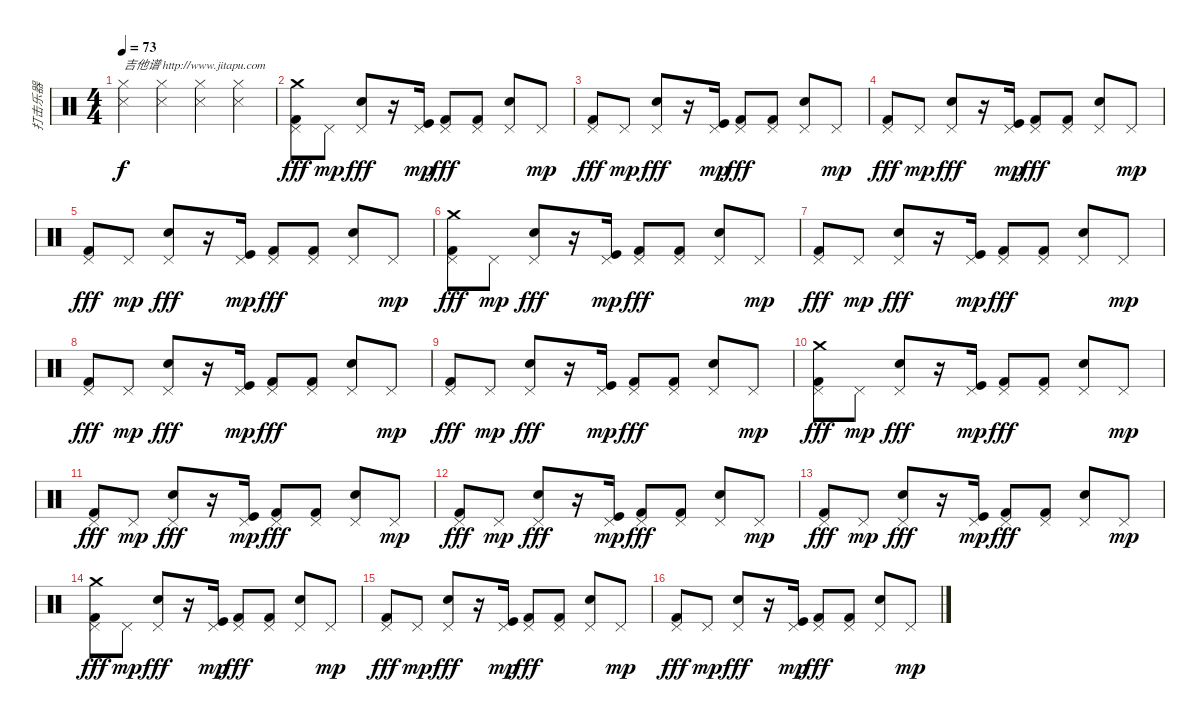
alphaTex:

\track ("打击乐器" "打击乐器") {instrument percussion}
\staff {score}
\articulation defaults
\ts (4 4)
\tempo 73
\clef neutral
\ks c
("Metronome (hit)" "Hi-Hat (closed)").4{txt "吉他谱 http://www.jitapu.com" dy f} ("Metronome (hit)" "Hi-Hat (closed)").4 ("Metronome (hit)" "Hi-Hat (closed)").4 ("Metronome (hit)" "Hi-Hat (closed)").4 |
("Pedal Hi-Hat (hit)" "Kick (hit) 2" "Crash medium (hit)").8{dy fff} "Pedal Hi-Hat (hit)".8{dy mp} ("Pedal Hi-Hat (hit)" "Electric Snare (hit)").8{dy fff} r.16 ("Pedal Hi-Hat (hit)" "Kick (hit)").16{dy mp} ("Pedal Hi-Hat (hit)" "Kick (hit) 2").8{dy fff} ("Pedal Hi-Hat (hit)" "Kick (hit) 2").8 ("Pedal Hi-Hat (hit)" "Electric Snare (hit)").8 "Pedal Hi-Hat (hit)".8{dy mp} |
("Pedal Hi-Hat (hit)" "Kick (hit) 2").8{dy fff} "Pedal Hi-Hat (hit)".8{dy mp} ("Pedal Hi-Hat (hit)" "Electric Snare (hit)").8{dy fff} r.16 ("Pedal Hi-Hat (hit)" "Kick (hit)").16{dy mp} ("Pedal Hi-Hat (hit)" "Kick (hit) 2").8{dy fff} ("Pedal Hi-Hat (hit)" "Kick (hit) 2").8 ("Pedal Hi-Hat (hit)" "Electric Snare (hit)").8 "Pedal Hi-Hat (hit)".8{dy mp} |
("Pedal Hi-Hat (hit)" "Kick (hit) 2").8{dy fff} "Pedal Hi-Hat (hit)".8{dy mp} ("Pedal Hi-Hat (hit)" "Electric Snare (hit)").8{dy fff} r.16 ("Pedal Hi-Hat (hit)" "Kick (hit)").16{dy mp} ("Pedal Hi-Hat (hit)" "Kick (hit) 2").8{dy fff} ("Pedal Hi-Hat (hit)" "Kick (hit) 2").8 ("Pedal Hi-Hat (hit)" "Electric Snare (hit)").8 "Pedal Hi-Hat (hit)".8{dy mp} |
("Pedal Hi-Hat (hit)" "Kick (hit) 2").8{dy fff} "Pedal Hi-Hat (hit)".8{dy mp} ("Pedal Hi-Hat (hit)" "Electric Snare (hit)").8{dy fff} r.16 ("Pedal Hi-Hat (hit)" "Kick (hit)").16{dy mp} ("Pedal Hi-Hat (hit)" "Kick (hit) 2").8{dy fff} ("Pedal Hi-Hat (hit)" "Kick (hit) 2").8 ("Pedal Hi-Hat (hit)" "Electric Snare (hit)").8 "Pedal Hi-Hat (hit)".8{dy mp} |
("Pedal Hi-Hat (hit)" "Kick (hit) 2" "Crash medium (hit)").8{dy fff} "Pedal Hi-Hat (hit)".8{dy mp} ("Pedal Hi-Hat (hit)" "Electric Snare (hit)").8{dy fff} r.16 ("Pedal Hi-Hat (hit)" "Kick (hit)").16{dy mp} ("Pedal Hi-Hat (hit)" "Kick (hit) 2").8{dy fff} ("Pedal Hi-Hat (hit)" "Kick (hit) 2").8 ("Pedal Hi-Hat (hit)" "Electric Snare (hit)").8 "Pedal Hi-Hat (hit)".8{dy mp} |
("Pedal Hi-Hat (hit)" "Kick (hit) 2").8{dy fff} "Pedal Hi-Hat (hit)".8{dy mp} ("Pedal Hi-Hat (hit)" "Electric Snare (hit)").8{dy fff} r.16 ("Pedal Hi-Hat (hit)" "Kick (hit)").16{dy mp} ("Pedal Hi-Hat (hit)" "Kick (hit) 2").8{dy fff} ("Pedal Hi-Hat (hit)" "Kick (hit) 2").8 ("Pedal Hi-Hat (hit)" "Electric Snare (hit)").8 "Pedal Hi-Hat (hit)".8{dy mp} |
("Pedal Hi-Hat (hit)" "Kick (hit) 2").8{dy fff} "Pedal Hi-Hat (hit)".8{dy mp} ("Pedal Hi-Hat (hit)" "Electric Snare (hit)").8{dy fff} r.16 ("Pedal Hi-Hat (hit)" "Kick (hit)").16{dy mp} ("Pedal Hi-Hat (hit)" "Kick (hit) 2").8{dy fff} ("Pedal Hi-Hat (hit)" "Kick (hit) 2").8 ("Pedal Hi-Hat (hit)" "Electric Snare (hit)").8 "Pedal Hi-Hat (hit)".8{dy mp} |
("Pedal Hi-Hat (hit)" "Kick (hit) 2").8{dy fff} "Pedal Hi-Hat (hit)".8{dy mp} ("Pedal Hi-Hat (hit)" "Electric Snare (hit)").8{dy fff} r.16 ("Pedal Hi-Hat (hit)" "Kick (hit)").16{dy mp} ("Pedal Hi-Hat (hit)" "Kick (hit) 2").8{dy fff} ("Pedal Hi-Hat (hit)" "Kick (hit) 2").8 ("Pedal Hi-Hat (hit)" "Electric Snare (hit)").8 "Pedal Hi-Hat (hit)".8{dy mp} |
("Pedal Hi-Hat (hit)" "Kick (hit) 2" "Crash medium (hit)").8{dy fff} "Pedal Hi-Hat (hit)".8{dy mp} ("Pedal Hi-Hat (hit)" "Electric Snare (hit)").8{dy fff} r.16 ("Pedal Hi-Hat (hit)" "Kick (hit)").16{dy mp} ("Pedal Hi-Hat (hit)" "Kick (hit) 2").8{dy fff} ("Pedal Hi-Hat (hit)" "Kick (hit) 2").8 ("Pedal Hi-Hat (hit)" "Electric Snare (hit)").8 "Pedal Hi-Hat (hit)".8{dy mp} |
("Pedal Hi-Hat (hit)" "Kick (hit) 2").8{dy fff} "Pedal Hi-Hat (hit)".8{dy mp} ("Pedal Hi-Hat (hit)" "Electric Snare (hit)").8{dy fff} r.16 ("Pedal Hi-Hat (hit)" "Kick (hit)").16{dy mp} ("Pedal Hi-Hat (hit)" "Kick (hit) 2").8{dy fff} ("Pedal Hi-Hat (hit)" "Kick (hit) 2").8 ("Pedal Hi-Hat (hit)" "Electric Snare (hit)").8 "Pedal Hi-Hat (hit)".8{dy mp} |
("Pedal Hi-Hat (hit)" "Kick (hit) 2").8{dy fff} "Pedal Hi-Hat (hit)".8{dy mp} ("Pedal Hi-Hat (hit)" "Electric Snare (hit)").8{dy fff} r.16 ("Pedal Hi-Hat (hit)" "Kick (hit)").16{dy mp} ("Pedal Hi-Hat (hit)" "Kick (hit) 2").8{dy fff} ("Pedal Hi-Hat (hit)" "Kick (hit) 2").8 ("Pedal Hi-Hat (hit)" "Electric Snare (hit)").8 "Pedal Hi-Hat (hit)".8{dy mp} |
("Pedal Hi-Hat (hit)" "Kick (hit) 2").8{dy fff} "Pedal Hi-Hat (hit)".8{dy mp} ("Pedal Hi-Hat (hit)" "Electric Snare (hit)").8{dy fff} r.16 ("Pedal Hi-Hat (hit)" "Kick (hit)").16{dy mp} ("Pedal Hi-Hat (hit)" "Kick (hit) 2").8{dy fff} ("Pedal Hi-Hat (hit)" "Kick (hit) 2").8 ("Pedal Hi-Hat (hit)" "Electric Snare (hit)").8 "Pedal Hi-Hat (hit)".8{dy mp} |
("Pedal Hi-Hat (hit)" "Kick (hit) 2" "Crash medium (hit)").8{dy fff} "Pedal Hi-Hat (hit)".8{dy mp} ("Pedal Hi-Hat (hit)" "Electric Snare (hit)").8{dy fff} r.16 ("Pedal Hi-Hat (hit)" "Kick (hit)").16{dy mp} ("Pedal Hi-Hat (hit)" "Kick (hit) 2").8{dy fff} ("Pedal Hi-Hat (hit)" "Kick (hit) 2").8 ("Pedal Hi-Hat (hit)" "Electric Snare (hit)").8 "Pedal Hi-Hat (hit)".8{dy mp} |
("Pedal Hi-Hat (hit)" "Kick (hit) 2").8{dy fff} "Pedal Hi-Hat (hit)".8{dy mp} ("Pedal Hi-Hat (hit)" "Electric Snare (hit)").8{dy fff} r.16 ("Pedal Hi-Hat (hit)" "Kick (hit)").16{dy mp} ("Pedal Hi-Hat (hit)" "Kick (hit) 2").8{dy fff} ("Pedal Hi-Hat (hit)" "Kick (hit) 2").8 ("Pedal Hi-Hat (hit)" "Electric Snare (hit)").8 "Pedal Hi-Hat (hit)".8{dy mp} |
("Pedal Hi-Hat (hit)" "Kick (hit) 2").8{dy fff} "Pedal Hi-Hat (hit)".8{dy mp} ("Pedal Hi-Hat (hit)" "Electric Snare (hit)").8{dy fff} r.16 ("Pedal Hi-Hat (hit)" "Kick (hit)").16{dy mp} ("Pedal Hi-Hat (hit)" "Kick (hit) 2").8{dy fff} ("Pedal Hi-Hat (hit)" "Kick (hit) 2").8 ("Pedal Hi-Hat (hit)" "Electric Snare (hit)").8 "Pedal Hi-Hat (hit)".8{dy mp}
